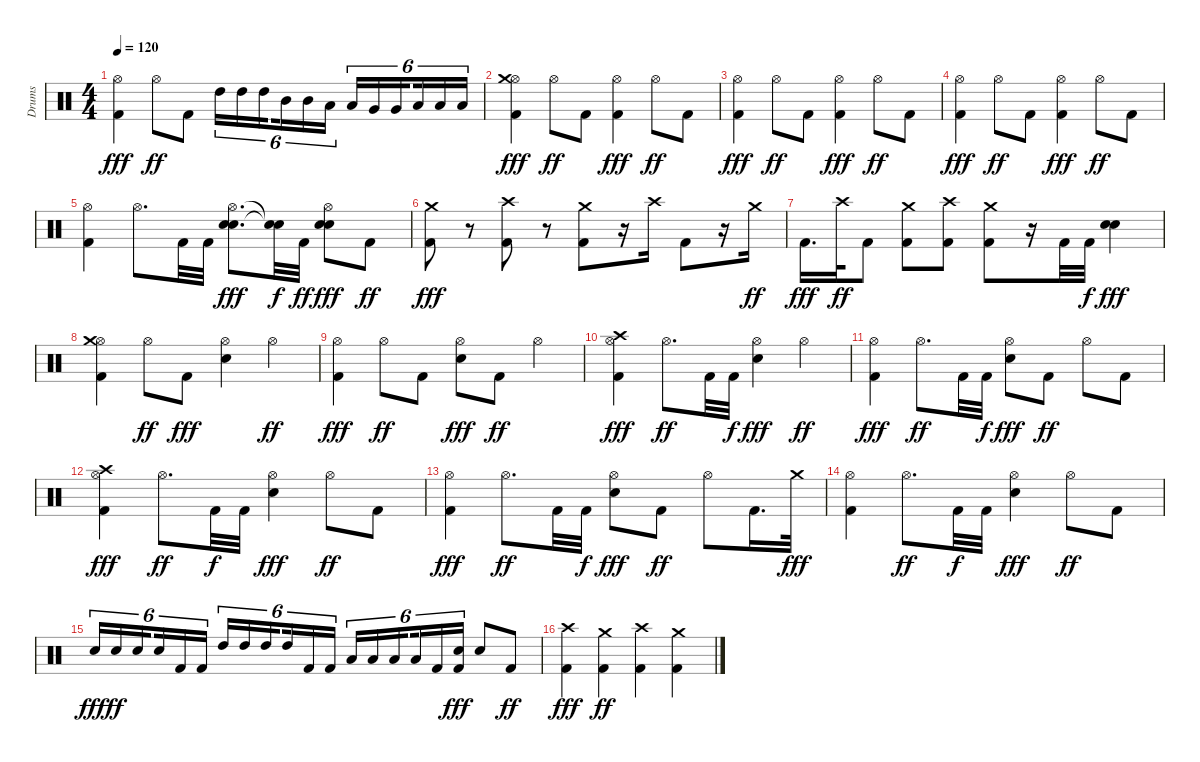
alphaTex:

\track ("Drums" "Drums") {instrument percussion}
\staff {score}
\articulation defaults
\ts (4 4)
\tempo 120
\clef neutral
\ks c
("Hi-Hat (open)" "Kick (hit) 2").4{dy fff} "Hi-Hat (open)".8{dy ff} "Kick (hit) 2".8 "High Tom (hit)".16{tu (6 4)} "High Tom (hit)".16{tu (6 4)} "High Tom (hit)".16{tu (6 4) beam splitsecondary} "Mid Tom (hit)".16{tu (6 4)} "Mid Tom (hit)".16{tu (6 4)} "Low Tom (hit)".16{tu (6 4)} "Low Tom (hit)".16{tu (6 4)} "Very Low Tom (hit)".16{tu (6 4)} "Very Low Tom (hit)".16{tu (6 4) beam splitsecondary} "Low Floor Tom (hit)".16{tu (6 4)} "Low Floor Tom (hit)".16{tu (6 4)} "Low Floor Tom (hit)".16{tu (6 4)} |
("Hi-Hat (open)" "Kick (hit) 2" "Crash medium (hit)").4{dy fff} "Hi-Hat (open)".8{dy ff} "Kick (hit) 2".8 ("Hi-Hat (open)" "Kick (hit) 2").4{dy fff} "Hi-Hat (open)".8{dy ff} "Kick (hit) 2".8 |
("Hi-Hat (open)" "Kick (hit) 2").4{dy fff} "Hi-Hat (open)".8{dy ff} "Kick (hit) 2".8 ("Hi-Hat (open)" "Kick (hit) 2").4{dy fff} "Hi-Hat (open)".8{dy ff} "Kick (hit) 2".8 |
("Hi-Hat (open)" "Kick (hit) 2").4{dy fff} "Hi-Hat (open)".8{dy ff} "Kick (hit) 2".8 ("Hi-Hat (open)" "Kick (hit) 2").4{dy fff} "Hi-Hat (open)".8{dy ff} "Kick (hit) 2".8 |
("Hi-Hat (open)" "Kick (hit) 2").4 "Hi-Hat (open)".8{d} "Kick (hit) 2".32 "Kick (hit) 2".32 ("Snare (hit) 2" "Hi-Hat (open)" "Electric Snare (hit)").8{d dy fff} ("Snare (hit)"{t} "Snare (hit)"{t}).32{dy f} "Kick (hit) 2".32{dy ff} ("Snare (hit) 2" "Hi-Hat (open)" "Electric Snare (hit)").8{dy fff} "Kick (hit) 2".8{dy ff} |
("Kick (hit) 2" "Crash medium (hit)").8{dy fff} r.8 ("Crash high (hit)" "Kick (hit) 2").8 r.8 ("Crash medium (hit)" "Kick (hit) 2").8 r.16 "Crash high (hit)".16 "Kick (hit) 2".8 r.16 "Crash medium (hit)".16{dy ff} |
"Kick (hit) 2".16{d dy fff} "Crash high (hit)".32{dy ff} "Kick (hit) 2".8 ("Crash medium (hit)" "Kick (hit) 2").8 ("Crash high (hit)" "Kick (hit) 2").8 ("Kick (hit) 2" "Crash medium (hit)").8 r.16 "Kick (hit) 2".32 "Kick (hit) 2".32{dy f} ("Snare (hit) 2" "Electric Snare (hit)").4{dy fff} |
("Hi-Hat (open)" "Kick (hit) 2" "Crash medium (hit)").4 "Hi-Hat (open)".8{dy ff} "Kick (hit) 2".8{dy fff} ("Hi-Hat (open)" "Snare (hit) 2").4 "Hi-Hat (open)".4{dy ff} |
("Hi-Hat (open)" "Kick (hit) 2").4{dy fff} "Hi-Hat (open)".8{dy ff} "Kick (hit) 2".8 ("Hi-Hat (open)" "Snare (hit) 2").8{dy fff} "Kick (hit) 2".8{dy ff} "Hi-Hat (open)".4 |
("Hi-Hat (open)" "Kick (hit) 2" "Crash high (hit)").4{dy fff} "Hi-Hat (open)".8{d dy ff} "Kick (hit) 2".32 "Kick (hit) 2".32{dy f} ("Hi-Hat (open)" "Snare (hit) 2").4{dy fff} "Hi-Hat (open)".4{dy ff} |
("Hi-Hat (open)" "Kick (hit) 2").4{dy fff} "Hi-Hat (open)".8{d dy ff} "Kick (hit) 2".32 "Kick (hit) 2".32{dy f} ("Hi-Hat (open)" "Snare (hit) 2").8{dy fff} "Kick (hit) 2".8{dy ff} "Hi-Hat (open)".8 "Kick (hit) 2".8 |
("Hi-Hat (open)" "Kick (hit) 2" "Crash high (hit)").4{dy fff} "Hi-Hat (open)".8{d dy ff} "Kick (hit) 2".32{dy f} "Kick (hit) 2".32 ("Hi-Hat (open)" "Snare (hit) 2").4{dy fff} "Hi-Hat (open)".8{dy ff} "Kick (hit) 2".8 |
("Hi-Hat (open)" "Kick (hit) 2").4{dy fff} "Hi-Hat (open)".8{d dy ff} "Kick (hit) 2".32 "Kick (hit) 2".32{dy f} ("Hi-Hat (open)" "Snare (hit) 2").8{dy fff} "Kick (hit) 2".8{dy ff} "Hi-Hat (open)".8 "Kick (hit) 2".16{d} "Crash medium (hit)".32{dy fff} |
("Hi-Hat (open)" "Kick (hit) 2").4 "Hi-Hat (open)".8{d dy ff} "Kick (hit) 2".32{dy f} "Kick (hit) 2".32 ("Hi-Hat (open)" "Snare (hit) 2").4{dy fff} "Hi-Hat (open)".8{dy ff} "Kick (hit) 2".8 |
"Snare (hit) 2".16{tu (6 4) dy fff} "Snare (hit) 2".16{tu (6 4) dy ff} "Snare (hit) 2".16{tu (6 4) beam splitsecondary} "Snare (hit) 2".16{tu (6 4)} "Kick (hit) 2".16{tu (6 4)} "Kick (hit) 2".16{tu (6 4)} "High Tom (hit)".16{tu (6 4)} "High Tom (hit)".16{tu (6 4)} "High Tom (hit)".16{tu (6 4) beam splitsecondary} "High Tom (hit)".16{tu (6 4)} "Kick (hit) 2".16{tu (6 4)} "Kick (hit) 2".16{tu (6 4)} "Low Tom (hit)".16{tu (6 4)} "Low Tom (hit)".16{tu (6 4)} "Low Tom (hit)".16{tu (6 4) beam splitsecondary} "Low Tom (hit)".16{tu (6 4)} "Kick (hit) 2".16{tu (6 4)} ("Kick (hit) 2" "Snare (hit) 2").16{tu (6 4) dy fff} "Electric Snare (hit)".8 "Kick (hit) 2".8{dy ff} |
("Crash high (hit)" "Kick (hit) 2").4{dy fff} ("Crash medium (hit)" "Kick (hit) 2").4{dy ff} ("Crash high (hit)" "Kick (hit) 2").4 ("Crash medium (hit)" "Kick (hit) 2").4
